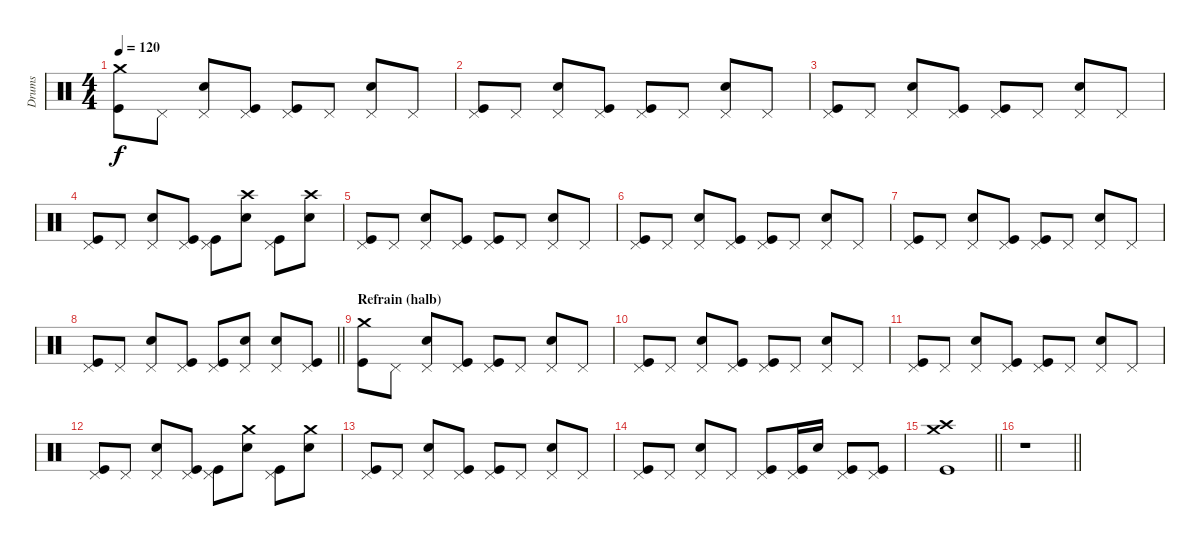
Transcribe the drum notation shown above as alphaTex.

\track ("Drums" "Drums") {instrument percussion}
\staff {score}
\articulation defaults
\ts (4 4)
\tempo 120
\clef neutral
\ks c
("Crash medium (hit)" "Kick (hit)").8{dy f} "Pedal Hi-Hat (hit)".8 ("Pedal Hi-Hat (hit)" "Snare (hit) 2").8 ("Pedal Hi-Hat (hit)" "Kick (hit)").8 ("Pedal Hi-Hat (hit)" "Kick (hit)").8 "Pedal Hi-Hat (hit)".8 ("Pedal Hi-Hat (hit)" "Snare (hit) 2").8 "Pedal Hi-Hat (hit)".8 |
("Pedal Hi-Hat (hit)" "Kick (hit)").8 "Pedal Hi-Hat (hit)".8 ("Pedal Hi-Hat (hit)" "Snare (hit) 2").8 ("Pedal Hi-Hat (hit)" "Kick (hit)").8 ("Pedal Hi-Hat (hit)" "Kick (hit)").8 "Pedal Hi-Hat (hit)".8 ("Pedal Hi-Hat (hit)" "Snare (hit) 2").8 "Pedal Hi-Hat (hit)".8 |
("Pedal Hi-Hat (hit)" "Kick (hit)").8 "Pedal Hi-Hat (hit)".8 ("Pedal Hi-Hat (hit)" "Snare (hit) 2").8 ("Pedal Hi-Hat (hit)" "Kick (hit)").8 ("Pedal Hi-Hat (hit)" "Kick (hit)").8 "Pedal Hi-Hat (hit)".8 ("Pedal Hi-Hat (hit)" "Snare (hit) 2").8 "Pedal Hi-Hat (hit)".8 |
("Pedal Hi-Hat (hit)" "Kick (hit)").8 "Pedal Hi-Hat (hit)".8 ("Pedal Hi-Hat (hit)" "Snare (hit) 2").8 ("Pedal Hi-Hat (hit)" "Kick (hit)").8 ("Pedal Hi-Hat (hit)" "Kick (hit)").8 ("Crash high (hit)" "Snare (hit) 2").8 ("Pedal Hi-Hat (hit)" "Kick (hit)").8 ("Crash high (hit)" "Snare (hit) 2").8 |
("Pedal Hi-Hat (hit)" "Kick (hit)").8 "Pedal Hi-Hat (hit)".8 ("Pedal Hi-Hat (hit)" "Snare (hit) 2").8 ("Pedal Hi-Hat (hit)" "Kick (hit)").8 ("Pedal Hi-Hat (hit)" "Kick (hit)").8 "Pedal Hi-Hat (hit)".8 ("Pedal Hi-Hat (hit)" "Snare (hit) 2").8 "Pedal Hi-Hat (hit)".8 |
("Pedal Hi-Hat (hit)" "Kick (hit)").8 "Pedal Hi-Hat (hit)".8 ("Pedal Hi-Hat (hit)" "Snare (hit) 2").8 ("Pedal Hi-Hat (hit)" "Kick (hit)").8 ("Pedal Hi-Hat (hit)" "Kick (hit)").8 "Pedal Hi-Hat (hit)".8 ("Pedal Hi-Hat (hit)" "Snare (hit) 2").8 "Pedal Hi-Hat (hit)".8 |
("Pedal Hi-Hat (hit)" "Kick (hit)").8 "Pedal Hi-Hat (hit)".8 ("Pedal Hi-Hat (hit)" "Snare (hit) 2").8 ("Pedal Hi-Hat (hit)" "Kick (hit)").8 ("Pedal Hi-Hat (hit)" "Kick (hit)").8 "Pedal Hi-Hat (hit)".8 ("Pedal Hi-Hat (hit)" "Snare (hit) 2").8 "Pedal Hi-Hat (hit)".8 |
\barLineRight lightlight
("Pedal Hi-Hat (hit)" "Kick (hit)").8 "Pedal Hi-Hat (hit)".8 ("Pedal Hi-Hat (hit)" "Snare (hit) 2").8 ("Pedal Hi-Hat (hit)" "Kick (hit)").8 ("Pedal Hi-Hat (hit)" "Kick (hit)").8 ("Pedal Hi-Hat (hit)" "Snare (hit) 2").8 ("Pedal Hi-Hat (hit)" "Snare (hit) 2").8 ("Pedal Hi-Hat (hit)" "Kick (hit)").8 |
\section ("" "Refrain (halb)")
("Crash medium (hit)" "Kick (hit)").8 "Pedal Hi-Hat (hit)".8 ("Pedal Hi-Hat (hit)" "Snare (hit) 2").8 ("Pedal Hi-Hat (hit)" "Kick (hit)").8 ("Pedal Hi-Hat (hit)" "Kick (hit)").8 "Pedal Hi-Hat (hit)".8 ("Pedal Hi-Hat (hit)" "Snare (hit) 2").8 "Pedal Hi-Hat (hit)".8 |
("Pedal Hi-Hat (hit)" "Kick (hit)").8 "Pedal Hi-Hat (hit)".8 ("Pedal Hi-Hat (hit)" "Snare (hit) 2").8 ("Pedal Hi-Hat (hit)" "Kick (hit)").8 ("Pedal Hi-Hat (hit)" "Kick (hit)").8 "Pedal Hi-Hat (hit)".8 ("Pedal Hi-Hat (hit)" "Snare (hit) 2").8 "Pedal Hi-Hat (hit)".8 |
("Pedal Hi-Hat (hit)" "Kick (hit)").8 "Pedal Hi-Hat (hit)".8 ("Pedal Hi-Hat (hit)" "Snare (hit) 2").8 ("Pedal Hi-Hat (hit)" "Kick (hit)").8 ("Pedal Hi-Hat (hit)" "Kick (hit)").8 "Pedal Hi-Hat (hit)".8 ("Pedal Hi-Hat (hit)" "Snare (hit) 2").8 "Pedal Hi-Hat (hit)".8 |
("Pedal Hi-Hat (hit)" "Kick (hit)").8 "Pedal Hi-Hat (hit)".8 ("Pedal Hi-Hat (hit)" "Snare (hit) 2").8 ("Pedal Hi-Hat (hit)" "Kick (hit)").8 ("Pedal Hi-Hat (hit)" "Kick (hit)").8 ("Crash medium (hit)" "Snare (hit) 2").8 ("Pedal Hi-Hat (hit)" "Kick (hit)").8 ("Crash medium (hit)" "Snare (hit) 2").8 |
("Pedal Hi-Hat (hit)" "Kick (hit)").8 "Pedal Hi-Hat (hit)".8 ("Pedal Hi-Hat (hit)" "Snare (hit) 2").8 ("Pedal Hi-Hat (hit)" "Kick (hit)").8 ("Pedal Hi-Hat (hit)" "Kick (hit)").8 "Pedal Hi-Hat (hit)".8 ("Pedal Hi-Hat (hit)" "Snare (hit) 2").8 "Pedal Hi-Hat (hit)".8 |
("Pedal Hi-Hat (hit)" "Kick (hit)").8 "Pedal Hi-Hat (hit)".8 ("Pedal Hi-Hat (hit)" "Snare (hit) 2").8 "Pedal Hi-Hat (hit)".8 ("Pedal Hi-Hat (hit)" "Kick (hit)").8 ("Pedal Hi-Hat (hit)" "Kick (hit)").16 "Snare (hit) 2".16 ("Pedal Hi-Hat (hit)" "Kick (hit)").8 ("Pedal Hi-Hat (hit)" "Kick (hit)").8 |
\barLineRight lightlight
("Crash high (hit)" "Crash medium (hit)" "Kick (hit)").1 |
\barLineRight lightlight
r.1
